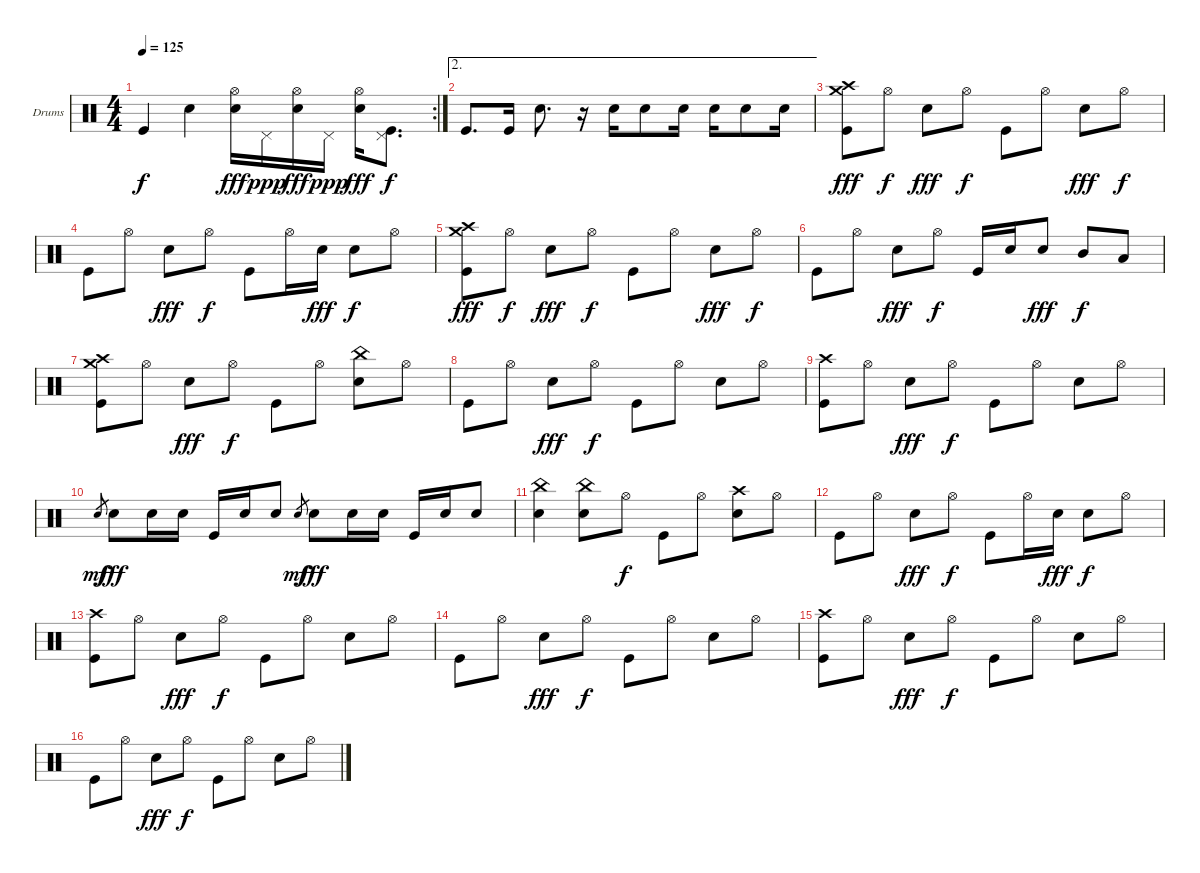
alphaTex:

\bracketExtendMode groupsimilarinstruments
\firstSystemTrackNameOrientation horizontal
\otherSystemsTrackNameOrientation horizontal
\track ("Drumkit" "Drums") {instrument percussion}
\staff {score}
\articulation defaults
\rc 2
\ts (4 4)
\tempo 125
\clef neutral
\ks c "Kick (hit)".4{dy f} "Snare (hit) 2".4
("Hi-Hat (open)" "Snare (hit) 2").16{dy fff} "Pedal Hi-Hat (hit)".16{dy ppp} ("Hi-Hat (open)" "Snare (hit) 2").16{dy fff} "Pedal Hi-Hat (hit)".16{dy ppp} ("Hi-Hat (open)" "Snare (hit) 2").16{dy fff} ("Kick (hit)" "Pedal Hi-Hat (hit)").8{d dy f} |
\ae 2 "Kick (hit)".8{d} "Kick (hit)".16 "Snare (hit) 2".8{d}
r.16 "Snare (hit) 2".16 "Snare (hit) 2".8 "Snare (hit) 2".16 "Snare (hit) 2".16 "Snare (hit) 2".8 "Snare (hit) 2".16 |
("Crash medium (hit)" "Crash high (hit)" "Kick (hit)").8{dy fff} "Hi-Hat (open)".8{dy f} "Snare (hit) 2".8{dy fff} "Hi-Hat (open)".8{dy f} "Kick (hit)".8 "Hi-Hat (open)".8 "Snare (hit) 2".8{dy fff} "Hi-Hat (open)".8{dy f} |
"Kick (hit)".8 "Hi-Hat (open)".8 "Snare (hit) 2".8{dy fff} "Hi-Hat (open)".8{dy f} "Kick (hit)".8 "Hi-Hat (open)".16 "Snare (hit) 2".16{dy fff} "Snare (hit) 2".8{dy f} "Hi-Hat (open)".8 |
("Crash medium (hit)" "Crash high (hit)" "Kick (hit)").8{dy fff} "Hi-Hat (open)".8{dy f} "Snare (hit) 2".8{dy fff} "Hi-Hat (open)".8{dy f} "Kick (hit)".8 "Hi-Hat (open)".8 "Snare (hit) 2".8{dy fff} "Hi-Hat (open)".8{dy f} |
"Kick (hit)".8 "Hi-Hat (open)".8 "Snare (hit) 2".8{dy fff} "Hi-Hat (open)".8{dy f} "Kick (hit)".16 "Snare (hit) 2".16 "Snare (hit) 2".8{dy fff} "Mid Tom (hit)".8{dy f} "Low Tom (hit)".8 |
("Crash high (hit)" "Crash medium (hit)" "Kick (hit)").8 "Hi-Hat (open)".8 "Snare (hit) 2".8{dy fff} "Hi-Hat (open)".8{dy f} "Kick (hit)".8 "Hi-Hat (open)".8 ("China (hit)" "Snare (hit) 2").8 "Hi-Hat (open)".8 |
"Kick (hit)".8 "Hi-Hat (open)".8 "Snare (hit) 2".8{dy fff} "Hi-Hat (open)".8{dy f} "Kick (hit)".8 "Hi-Hat (open)".8 "Snare (hit) 2".8 "Hi-Hat (open)".8 |
("Crash high (hit)" "Kick (hit)").8 "Hi-Hat (open)".8 "Snare (hit) 2".8{dy fff} "Hi-Hat (open)".8{dy f} "Kick (hit)".8 "Hi-Hat (open)".8 "Snare (hit) 2".8 "Hi-Hat (open)".8 |
"Snare (hit) 2".8{gr dy mf} "Snare (hit) 2".8{dy fff} "Snare (hit) 2".16 "Snare (hit) 2".16 "Kick (hit)".16 "Snare (hit) 2".16 "Snare (hit) 2".8 "Snare (hit) 2".8{gr dy mf} "Snare (hit) 2".8{dy fff} "Snare (hit) 2".16 "Snare (hit) 2".16 "Kick (hit)".16 "Snare (hit) 2".16 "Snare (hit) 2".8 |
("China (hit)" "Snare (hit) 2").4 ("China (hit)" "Snare (hit) 2").8 "Hi-Hat (open)".8{dy f} "Kick (hit)".8 "Hi-Hat (open)".8 ("Crash high (hit)" "Snare (hit) 2").8 "Hi-Hat (open)".8 |
"Kick (hit)".8 "Hi-Hat (open)".8 "Snare (hit) 2".8{dy fff} "Hi-Hat (open)".8{dy f} "Kick (hit)".8 "Hi-Hat (open)".16 "Snare (hit) 2".16{dy fff} "Snare (hit) 2".8{dy f} "Hi-Hat (open)".8 |
("Crash high (hit)" "Kick (hit)").8 "Hi-Hat (open)".8 "Snare (hit) 2".8{dy fff} "Hi-Hat (open)".8{dy f} "Kick (hit)".8 "Hi-Hat (open)".8 "Snare (hit) 2".8 "Hi-Hat (open)".8 |
"Kick (hit)".8 "Hi-Hat (open)".8 "Snare (hit) 2".8{dy fff} "Hi-Hat (open)".8{dy f} "Kick (hit)".8 "Hi-Hat (open)".8 "Snare (hit) 2".8 "Hi-Hat (open)".8 |
("Crash high (hit)" "Kick (hit)").8 "Hi-Hat (open)".8 "Snare (hit) 2".8{dy fff} "Hi-Hat (open)".8{dy f} "Kick (hit)".8 "Hi-Hat (open)".8 "Snare (hit) 2".8 "Hi-Hat (open)".8 |
"Kick (hit)".8 "Hi-Hat (open)".8 "Snare (hit) 2".8{dy fff} "Hi-Hat (open)".8{dy f} "Kick (hit)".8 "Hi-Hat (open)".8 "Snare (hit) 2".8 "Hi-Hat (open)".8
